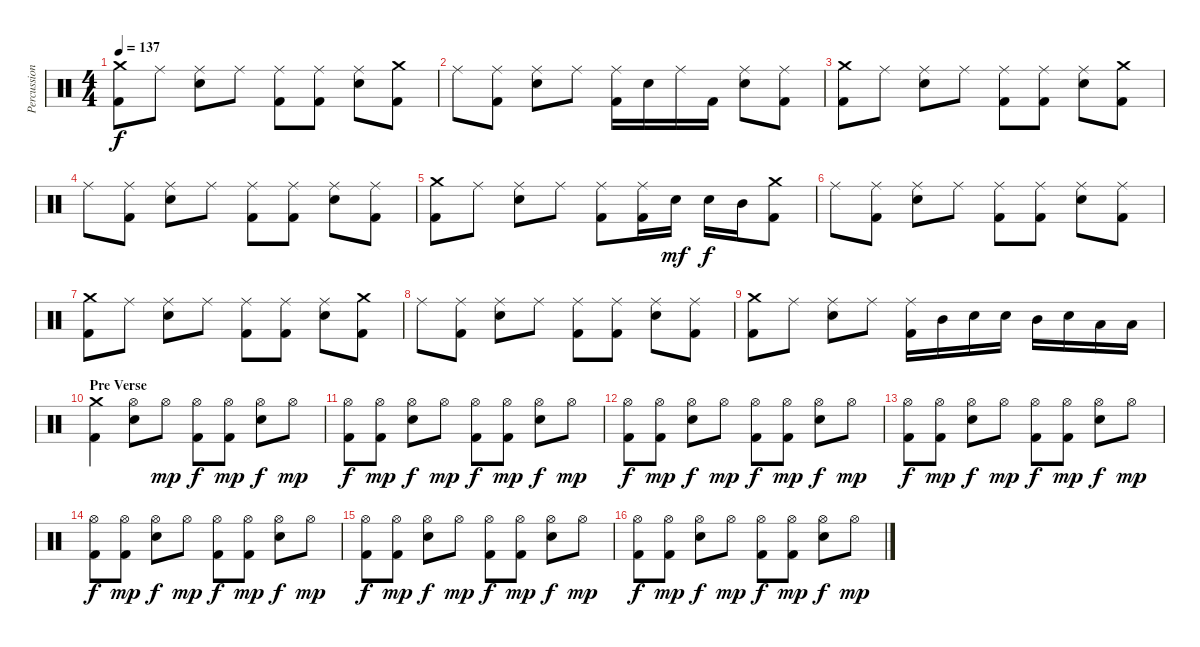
\track ("Percussion" "Percussion") {instrument percussion}
\staff {score}
\articulation defaults
\ts (4 4)
\tempo 137
\clef neutral
\ks c
("Crash medium (hit)" "Kick (hit) 2").8{dy f} "Ride (middle)".8 ("Ride (middle)" "Electric Snare (hit)").8 "Ride (middle)".8 ("Ride (middle)" "Kick (hit) 2").8 ("Ride (middle)" "Kick (hit) 2").8 ("Ride (middle)" "Electric Snare (hit)").8 ("Crash medium (hit)" "Kick (hit) 2").8 |
"Ride (middle)".8 ("Ride (middle)" "Kick (hit) 2").8 ("Ride (middle)" "Electric Snare (hit)").8 "Ride (middle)".8 ("Ride (middle)" "Kick (hit) 2").16 "Electric Snare (hit)".16 "Ride (middle)".16 "Kick (hit) 2".16 ("Ride (middle)" "Electric Snare (hit)").8 ("Ride (middle)" "Kick (hit) 2").8 |
("Crash medium (hit)" "Kick (hit) 2").8 "Ride (middle)".8 ("Ride (middle)" "Electric Snare (hit)").8 "Ride (middle)".8 ("Ride (middle)" "Kick (hit) 2").8 ("Ride (middle)" "Kick (hit) 2").8 ("Ride (middle)" "Electric Snare (hit)").8 ("Crash medium (hit)" "Kick (hit) 2").8 |
"Ride (middle)".8 ("Ride (middle)" "Kick (hit) 2").8 ("Ride (middle)" "Electric Snare (hit)").8 "Ride (middle)".8 ("Ride (middle)" "Kick (hit) 2").8 ("Ride (middle)" "Kick (hit) 2").8 ("Ride (middle)" "Electric Snare (hit)").8 ("Ride (middle)" "Kick (hit) 2").8 |
("Crash medium (hit)" "Kick (hit) 2").8 "Ride (middle)".8 ("Ride (middle)" "Electric Snare (hit)").8 "Ride (middle)".8 ("Ride (middle)" "Kick (hit) 2").8 ("Ride (middle)" "Kick (hit) 2").16 "Electric Snare (hit)".16{dy mf} "Electric Snare (hit)".16{dy f} "Mid Tom (hit)".16 ("Crash medium (hit)" "Kick (hit) 2").8 |
"Ride (middle)".8 ("Ride (middle)" "Kick (hit) 2").8 ("Ride (middle)" "Electric Snare (hit)").8 "Ride (middle)".8 ("Ride (middle)" "Kick (hit) 2").8 ("Ride (middle)" "Kick (hit) 2").8 ("Ride (middle)" "Electric Snare (hit)").8 ("Ride (middle)" "Kick (hit) 2").8 |
("Crash medium (hit)" "Kick (hit) 2").8 "Ride (middle)".8 ("Ride (middle)" "Electric Snare (hit)").8 "Ride (middle)".8 ("Ride (middle)" "Kick (hit) 2").8 ("Ride (middle)" "Kick (hit) 2").8 ("Ride (middle)" "Electric Snare (hit)").8 ("Crash medium (hit)" "Kick (hit) 2").8 |
"Ride (middle)".8 ("Ride (middle)" "Kick (hit) 2").8 ("Ride (middle)" "Electric Snare (hit)").8 "Ride (middle)".8 ("Ride (middle)" "Kick (hit) 2").8 ("Ride (middle)" "Kick (hit) 2").8 ("Ride (middle)" "Electric Snare (hit)").8 ("Ride (middle)" "Kick (hit) 2").8 |
("Crash medium (hit)" "Kick (hit) 2").8 "Ride (middle)".8 ("Ride (middle)" "Electric Snare (hit)").8 "Ride (middle)".8 ("Ride (middle)" "Kick (hit) 2").16 "Mid Tom (hit)".16 "Electric Snare (hit)".16 "Electric Snare (hit)".16 "Mid Tom (hit)".16 "Electric Snare (hit)".16 "Low Tom (hit)".16 "Low Tom (hit)".16 |
\section ("" "Pre Verse")
("Crash medium (hit)" "Kick (hit) 2").4 ("Hi-Hat (open)" "Electric Snare (hit)").8 "Hi-Hat (open)".8{dy mp} ("Hi-Hat (open)" "Kick (hit) 2").8{dy f} ("Hi-Hat (open)" "Kick (hit) 2").8{dy mp} ("Hi-Hat (open)" "Electric Snare (hit)").8{dy f} "Hi-Hat (open)".8{dy mp} |
("Hi-Hat (open)" "Kick (hit) 2").8{dy f} ("Hi-Hat (open)" "Kick (hit) 2").8{dy mp} ("Hi-Hat (open)" "Electric Snare (hit)").8{dy f} "Hi-Hat (open)".8{dy mp} ("Hi-Hat (open)" "Kick (hit) 2").8{dy f} ("Hi-Hat (open)" "Kick (hit) 2").8{dy mp} ("Hi-Hat (open)" "Electric Snare (hit)").8{dy f} "Hi-Hat (open)".8{dy mp} |
("Hi-Hat (open)" "Kick (hit) 2").8{dy f} ("Hi-Hat (open)" "Kick (hit) 2").8{dy mp} ("Hi-Hat (open)" "Electric Snare (hit)").8{dy f} "Hi-Hat (open)".8{dy mp} ("Hi-Hat (open)" "Kick (hit) 2").8{dy f} ("Hi-Hat (open)" "Kick (hit) 2").8{dy mp} ("Hi-Hat (open)" "Electric Snare (hit)").8{dy f} "Hi-Hat (open)".8{dy mp} |
("Hi-Hat (open)" "Kick (hit) 2").8{dy f} ("Hi-Hat (open)" "Kick (hit) 2").8{dy mp} ("Hi-Hat (open)" "Electric Snare (hit)").8{dy f} "Hi-Hat (open)".8{dy mp} ("Hi-Hat (open)" "Kick (hit) 2").8{dy f} ("Hi-Hat (open)" "Kick (hit) 2").8{dy mp} ("Hi-Hat (open)" "Electric Snare (hit)").8{dy f} "Hi-Hat (open)".8{dy mp} |
("Hi-Hat (open)" "Kick (hit) 2").8{dy f} ("Hi-Hat (open)" "Kick (hit) 2").8{dy mp} ("Hi-Hat (open)" "Electric Snare (hit)").8{dy f} "Hi-Hat (open)".8{dy mp} ("Hi-Hat (open)" "Kick (hit) 2").8{dy f} ("Hi-Hat (open)" "Kick (hit) 2").8{dy mp} ("Hi-Hat (open)" "Electric Snare (hit)").8{dy f} "Hi-Hat (open)".8{dy mp} |
("Hi-Hat (open)" "Kick (hit) 2").8{dy f} ("Hi-Hat (open)" "Kick (hit) 2").8{dy mp} ("Hi-Hat (open)" "Electric Snare (hit)").8{dy f} "Hi-Hat (open)".8{dy mp} ("Hi-Hat (open)" "Kick (hit) 2").8{dy f} ("Hi-Hat (open)" "Kick (hit) 2").8{dy mp} ("Hi-Hat (open)" "Electric Snare (hit)").8{dy f} "Hi-Hat (open)".8{dy mp} |
("Hi-Hat (open)" "Kick (hit) 2").8{dy f} ("Hi-Hat (open)" "Kick (hit) 2").8{dy mp} ("Hi-Hat (open)" "Electric Snare (hit)").8{dy f} "Hi-Hat (open)".8{dy mp} ("Hi-Hat (open)" "Kick (hit) 2").8{dy f} ("Hi-Hat (open)" "Kick (hit) 2").8{dy mp} ("Hi-Hat (open)" "Electric Snare (hit)").8{dy f} "Hi-Hat (open)".8{dy mp}
